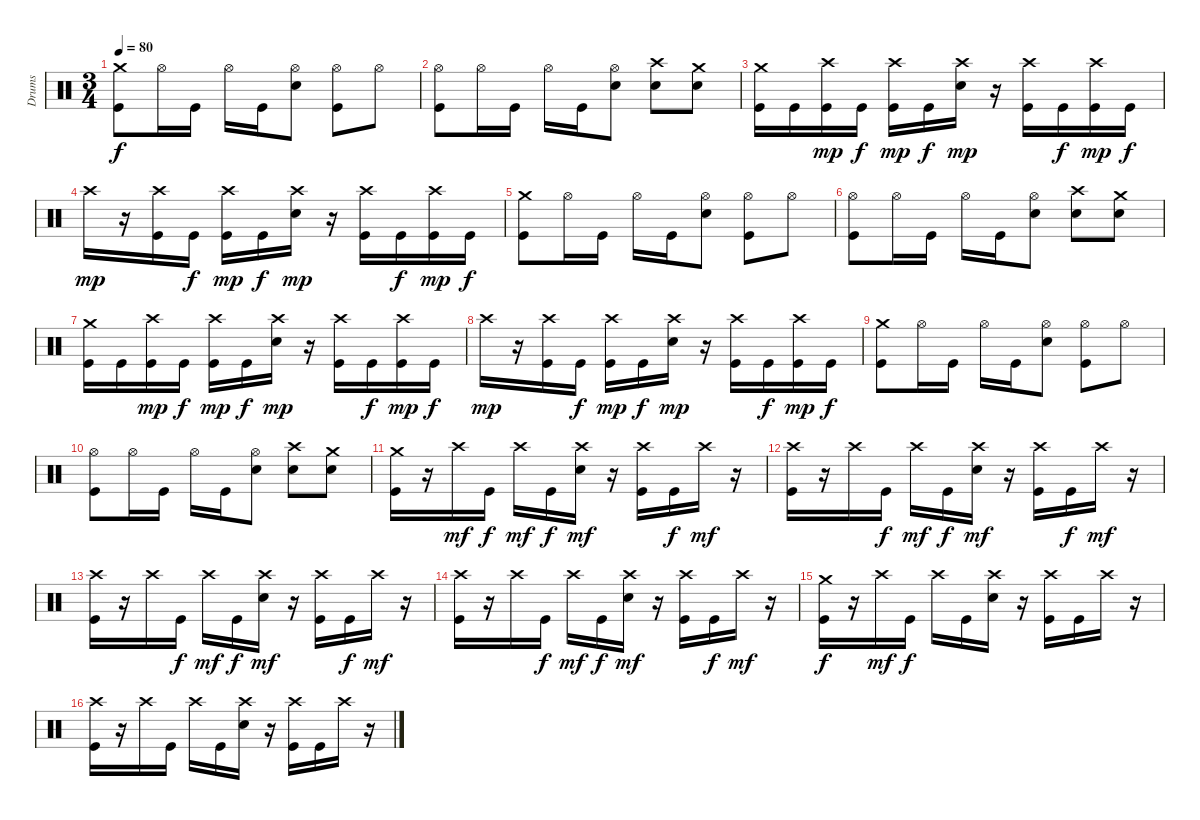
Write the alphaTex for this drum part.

\track ("Drums" "Drums") {instrument percussion}
\staff {score}
\articulation defaults
\ts (3 4)
\tempo 80
\clef neutral
\ks c
("Crash medium (hit)" "Kick (hit)").8{dy f} "Hi-Hat (open)".16 "Kick (hit)".16 "Hi-Hat (open)".16 "Kick (hit)".16 ("Hi-Hat (open)" "Electric Snare (hit)").8 ("Hi-Hat (open)" "Kick (hit)").8 "Hi-Hat (open)".8 |
("Hi-Hat (open)" "Kick (hit)").8 "Hi-Hat (open)".16 "Kick (hit)".16 "Hi-Hat (open)".16 "Kick (hit)".16 ("Hi-Hat (open)" "Electric Snare (hit)").8 ("Crash high (hit)" "Electric Snare (hit)").8 ("Crash medium (hit)" "Electric Snare (hit)").8 |
("Crash medium (hit)" "Kick (hit)").16 "Kick (hit)".16 ("Crash high (hit)" "Kick (hit)").16{dy mp} "Kick (hit)".16{dy f} ("Crash high (hit)" "Kick (hit)").16{dy mp} "Kick (hit)".16{dy f} ("Crash high (hit)" "Electric Snare (hit)").16{dy mp} r.16 ("Crash high (hit)" "Kick (hit)").16 "Kick (hit)".16{dy f} ("Crash high (hit)" "Kick (hit)").16{dy mp} "Kick (hit)".16{dy f} |
"Crash high (hit)".16{dy mp} r.16 ("Crash high (hit)" "Kick (hit)").16 "Kick (hit)".16{dy f} ("Crash high (hit)" "Kick (hit)").16{dy mp} "Kick (hit)".16{dy f} ("Crash high (hit)" "Electric Snare (hit)").16{dy mp} r.16 ("Crash high (hit)" "Kick (hit)").16 "Kick (hit)".16{dy f} ("Crash high (hit)" "Kick (hit)").16{dy mp} "Kick (hit)".16{dy f} |
("Crash medium (hit)" "Kick (hit)").8 "Hi-Hat (open)".16 "Kick (hit)".16 "Hi-Hat (open)".16 "Kick (hit)".16 ("Hi-Hat (open)" "Electric Snare (hit)").8 ("Hi-Hat (open)" "Kick (hit)").8 "Hi-Hat (open)".8 |
("Hi-Hat (open)" "Kick (hit)").8 "Hi-Hat (open)".16 "Kick (hit)".16 "Hi-Hat (open)".16 "Kick (hit)".16 ("Hi-Hat (open)" "Electric Snare (hit)").8 ("Crash high (hit)" "Electric Snare (hit)").8 ("Crash medium (hit)" "Electric Snare (hit)").8 |
("Crash medium (hit)" "Kick (hit)").16 "Kick (hit)".16 ("Crash high (hit)" "Kick (hit)").16{dy mp} "Kick (hit)".16{dy f} ("Crash high (hit)" "Kick (hit)").16{dy mp} "Kick (hit)".16{dy f} ("Crash high (hit)" "Electric Snare (hit)").16{dy mp} r.16 ("Crash high (hit)" "Kick (hit)").16 "Kick (hit)".16{dy f} ("Crash high (hit)" "Kick (hit)").16{dy mp} "Kick (hit)".16{dy f} |
"Crash high (hit)".16{dy mp} r.16 ("Crash high (hit)" "Kick (hit)").16 "Kick (hit)".16{dy f} ("Crash high (hit)" "Kick (hit)").16{dy mp} "Kick (hit)".16{dy f} ("Crash high (hit)" "Electric Snare (hit)").16{dy mp} r.16 ("Crash high (hit)" "Kick (hit)").16 "Kick (hit)".16{dy f} ("Crash high (hit)" "Kick (hit)").16{dy mp} "Kick (hit)".16{dy f} |
("Crash medium (hit)" "Kick (hit)").8 "Hi-Hat (open)".16 "Kick (hit)".16 "Hi-Hat (open)".16 "Kick (hit)".16 ("Hi-Hat (open)" "Electric Snare (hit)").8 ("Hi-Hat (open)" "Kick (hit)").8 "Hi-Hat (open)".8 |
("Hi-Hat (open)" "Kick (hit)").8 "Hi-Hat (open)".16 "Kick (hit)".16 "Hi-Hat (open)".16 "Kick (hit)".16 ("Hi-Hat (open)" "Electric Snare (hit)").8 ("Crash high (hit)" "Electric Snare (hit)").8 ("Crash medium (hit)" "Electric Snare (hit)").8 |
("Crash medium (hit)" "Kick (hit)").16 r.16 "Crash high (hit)".16{dy mf} "Kick (hit)".16{dy f} "Crash high (hit)".16{dy mf} "Kick (hit)".16{dy f} ("Crash high (hit)" "Electric Snare (hit)").16{dy mf} r.16 ("Crash high (hit)" "Kick (hit)").16 "Kick (hit)".16{dy f} "Crash high (hit)".16{dy mf} r.16 |
("Crash high (hit)" "Kick (hit)").16 r.16 "Crash high (hit)".16 "Kick (hit)".16{dy f} "Crash high (hit)".16{dy mf} "Kick (hit)".16{dy f} ("Crash high (hit)" "Electric Snare (hit)").16{dy mf} r.16 ("Crash high (hit)" "Kick (hit)").16 "Kick (hit)".16{dy f} "Crash high (hit)".16{dy mf} r.16 |
("Crash high (hit)" "Kick (hit)").16 r.16 "Crash high (hit)".16 "Kick (hit)".16{dy f} "Crash high (hit)".16{dy mf} "Kick (hit)".16{dy f} ("Crash high (hit)" "Electric Snare (hit)").16{dy mf} r.16 ("Crash high (hit)" "Kick (hit)").16 "Kick (hit)".16{dy f} "Crash high (hit)".16{dy mf} r.16 |
("Crash high (hit)" "Kick (hit)").16 r.16 "Crash high (hit)".16 "Kick (hit)".16{dy f} "Crash high (hit)".16{dy mf} "Kick (hit)".16{dy f} ("Crash high (hit)" "Electric Snare (hit)").16{dy mf} r.16 ("Crash high (hit)" "Kick (hit)").16 "Kick (hit)".16{dy f} "Crash high (hit)".16{dy mf} r.16 |
("Crash medium (hit)" "Kick (hit)").16{dy f} r.16 "Crash high (hit)".16{dy mf} "Kick (hit)".16{dy f} "Crash high (hit)".16 "Kick (hit)".16 ("Crash high (hit)" "Electric Snare (hit)").16 r.16 ("Crash high (hit)" "Kick (hit)").16 "Kick (hit)".16 "Crash high (hit)".16 r.16 |
("Crash high (hit)" "Kick (hit)").16 r.16 "Crash high (hit)".16 "Kick (hit)".16 "Crash high (hit)".16 "Kick (hit)".16 ("Crash high (hit)" "Electric Snare (hit)").16 r.16 ("Crash high (hit)" "Kick (hit)").16 "Kick (hit)".16 "Crash high (hit)".16 r.16
